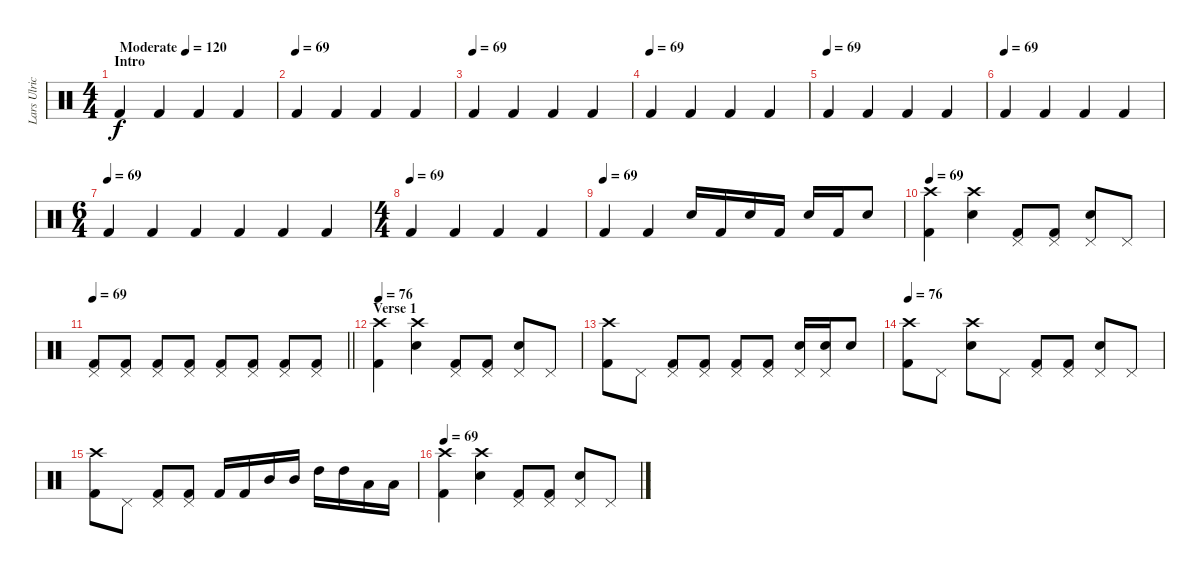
\track ("Lars Ulrich" "Lars Ulric") {instrument percussion}
\staff {score}
\articulation defaults
\ts (4 4)
\section ("" "Intro")
\tempo (120 "Moderate")
\tempo 69
\tempo (120 "Moderate")
\clef neutral
\ks c "Kick (hit) 2".4{dy f} "Kick (hit) 2".4 "Kick (hit) 2".4 "Kick (hit) 2".4
|
\tempo (69)
"Kick (hit) 2".4 "Kick (hit) 2".4 "Kick (hit) 2".4 "Kick (hit) 2".4 |
\tempo (69)
"Kick (hit) 2".4 "Kick (hit) 2".4 "Kick (hit) 2".4 "Kick (hit) 2".4 |
\tempo (69)
"Kick (hit) 2".4 "Kick (hit) 2".4 "Kick (hit) 2".4 "Kick (hit) 2".4 |
\tempo (69)
"Kick (hit) 2".4 "Kick (hit) 2".4 "Kick (hit) 2".4 "Kick (hit) 2".4 |
\tempo (69)
"Kick (hit) 2".4 "Kick (hit) 2".4 "Kick (hit) 2".4 "Kick (hit) 2".4 |
\ts (6 4)
\tempo (69)
"Kick (hit) 2".4 "Kick (hit) 2".4 "Kick (hit) 2".4 "Kick (hit) 2".4 "Kick (hit) 2".4 "Kick (hit) 2".4 |
\ts (4 4)
\tempo (69)
"Kick (hit) 2".4 "Kick (hit) 2".4 "Kick (hit) 2".4 "Kick (hit) 2".4 |
\tempo (69)
"Kick (hit) 2".4 "Kick (hit) 2".4 "Snare (hit) 2".16 "Kick (hit) 2".16 "Snare (hit) 2".16 "Kick (hit) 2".16 "Snare (hit) 2".16 "Kick (hit) 2".16 "Snare (hit) 2".8 |
\tempo 69
("Crash high (hit)" "Kick (hit) 2").4 ("Crash high (hit)" "Snare (hit) 2").4 ("Pedal Hi-Hat (hit)" "Kick (hit) 2").8 ("Pedal Hi-Hat (hit)" "Kick (hit) 2").8 ("Pedal Hi-Hat (hit)" "Snare (hit) 2").8 "Pedal Hi-Hat (hit)".8 |
\tempo 69
\barLineRight lightlight
("Pedal Hi-Hat (hit)" "Kick (hit) 2").8 ("Pedal Hi-Hat (hit)" "Kick (hit) 2").8 ("Pedal Hi-Hat (hit)" "Kick (hit) 2").8 ("Pedal Hi-Hat (hit)" "Kick (hit) 2").8 ("Pedal Hi-Hat (hit)" "Kick (hit) 2").8 ("Pedal Hi-Hat (hit)" "Kick (hit) 2").8 ("Pedal Hi-Hat (hit)" "Kick (hit) 2").8 ("Pedal Hi-Hat (hit)" "Kick (hit) 2").8 |
\section ("" "Verse 1")
\tempo 76
("Crash high (hit)" "Kick (hit) 2").4 ("Crash high (hit)" "Snare (hit) 2").4 ("Pedal Hi-Hat (hit)" "Kick (hit) 2").8 ("Pedal Hi-Hat (hit)" "Kick (hit) 2").8 ("Pedal Hi-Hat (hit)" "Snare (hit) 2").8 "Pedal Hi-Hat (hit)".8 |
("Crash high (hit)" "Kick (hit) 2").8 "Pedal Hi-Hat (hit)".8 ("Pedal Hi-Hat (hit)" "Kick (hit) 2").8 ("Pedal Hi-Hat (hit)" "Kick (hit) 2").8 ("Pedal Hi-Hat (hit)" "Kick (hit) 2").8 ("Pedal Hi-Hat (hit)" "Kick (hit) 2").8 ("Pedal Hi-Hat (hit)" "Snare (hit) 2").16 ("Pedal Hi-Hat (hit)" "Snare (hit) 2").16 "Snare (hit) 2".8 |
\tempo 76
("Crash high (hit)" "Kick (hit) 2").8 "Pedal Hi-Hat (hit)".8 ("Crash high (hit)" "Snare (hit) 2").8 "Pedal Hi-Hat (hit)".8 ("Pedal Hi-Hat (hit)" "Kick (hit) 2").8 ("Pedal Hi-Hat (hit)" "Kick (hit) 2").8 ("Pedal Hi-Hat (hit)" "Snare (hit) 2").8 "Pedal Hi-Hat (hit)".8 |
("Crash high (hit)" "Kick (hit) 2").8 "Pedal Hi-Hat (hit)".8 ("Pedal Hi-Hat (hit)" "Kick (hit) 2").8 ("Pedal Hi-Hat (hit)" "Kick (hit) 2").8 "Kick (hit) 2".16 "Kick (hit) 2".16 "Mid Tom (hit)".16 "Mid Tom (hit)".16 "High Tom (hit)".16 "High Tom (hit)".16 "Low Floor Tom (hit)".16 "Low Floor Tom (hit)".16 |
\tempo 69
("Crash high (hit)" "Kick (hit) 2").4 ("Crash high (hit)" "Electric Snare (hit)").4 ("Pedal Hi-Hat (hit)" "Kick (hit) 2").8 ("Pedal Hi-Hat (hit)" "Kick (hit) 2").8 ("Pedal Hi-Hat (hit)" "Snare (hit) 2").8 "Pedal Hi-Hat (hit)".8
